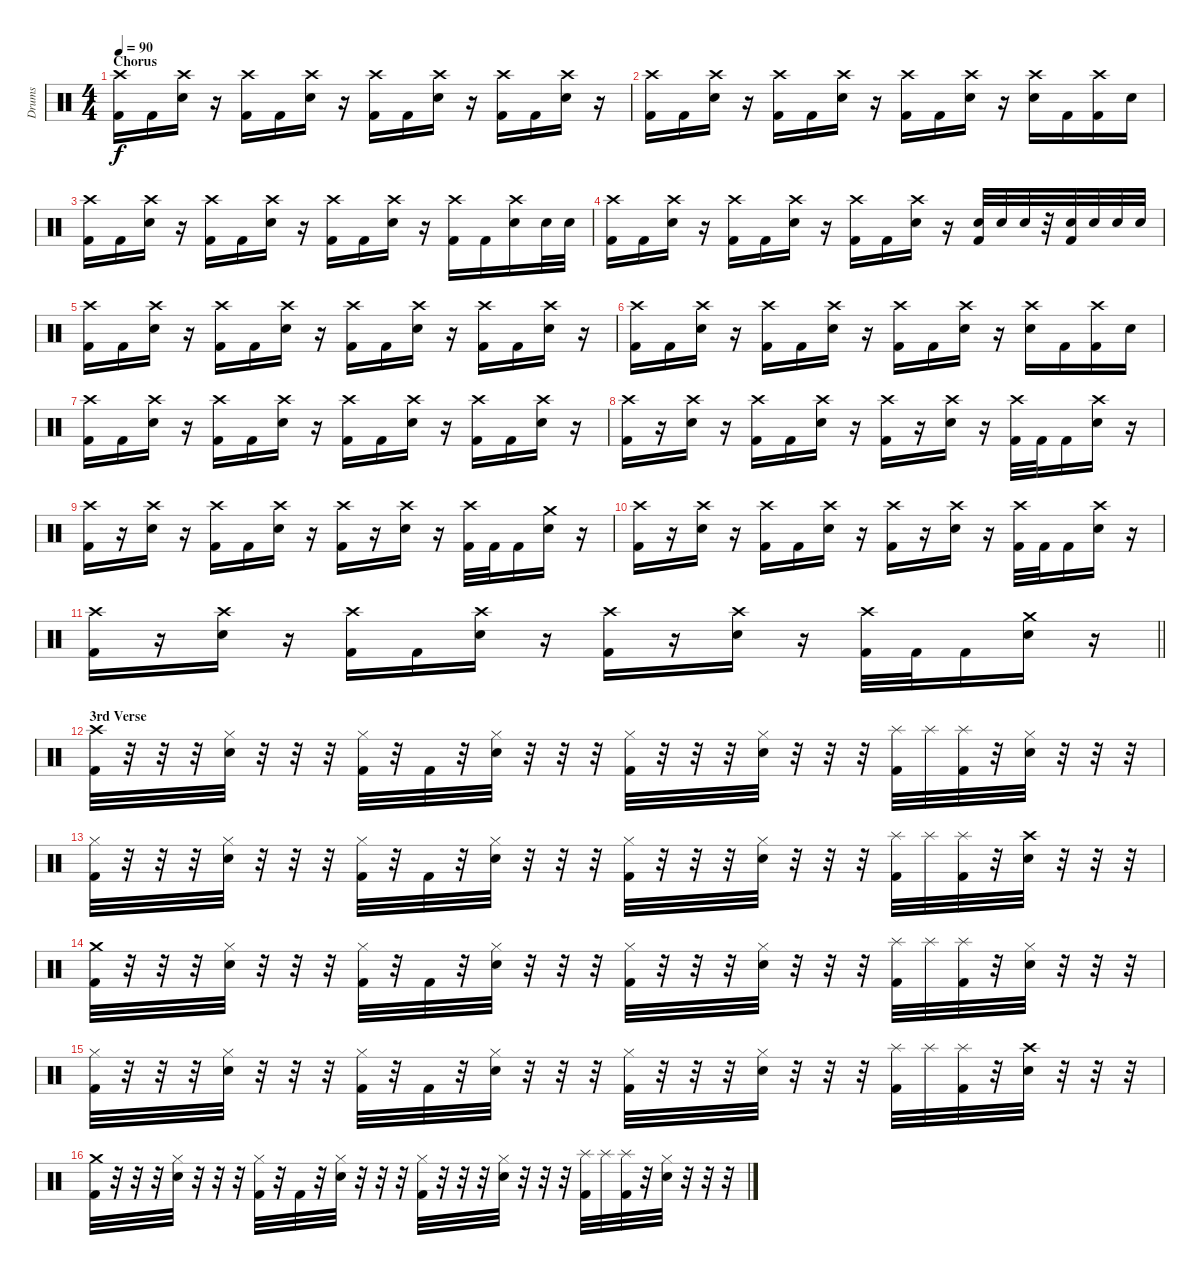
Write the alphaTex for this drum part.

\track ("Drums" "Drums") {instrument percussion}
\staff {score}
\articulation defaults
\ts (4 4)
\section ("" "Chorus")
\tempo 90
\clef neutral
\ks c
("Crash high (hit)" "Kick (hit) 2").16{dy f} "Kick (hit) 2".16 ("Crash high (hit)" "Electric Snare (hit)").16 r.16 ("Crash high (hit)" "Kick (hit) 2").16 "Kick (hit) 2".16 ("Crash high (hit)" "Electric Snare (hit)").16 r.16 ("Crash high (hit)" "Kick (hit) 2").16 "Kick (hit) 2".16 ("Crash high (hit)" "Electric Snare (hit)").16 r.16 ("Crash high (hit)" "Kick (hit) 2").16 "Kick (hit) 2".16 ("Crash high (hit)" "Electric Snare (hit)").16 r.16 |
("Crash high (hit)" "Kick (hit) 2").16 "Kick (hit) 2".16 ("Crash high (hit)" "Electric Snare (hit)").16 r.16 ("Crash high (hit)" "Kick (hit) 2").16 "Kick (hit) 2".16 ("Crash high (hit)" "Electric Snare (hit)").16 r.16 ("Crash high (hit)" "Kick (hit) 2").16 "Kick (hit) 2".16 ("Crash high (hit)" "Electric Snare (hit)").16 r.16 ("Crash high (hit)" "Electric Snare (hit)").16 "Kick (hit) 2".16 ("Crash high (hit)" "Kick (hit) 2").16 "Electric Snare (hit)".16 |
("Crash high (hit)" "Kick (hit) 2").16 "Kick (hit) 2".16 ("Crash high (hit)" "Electric Snare (hit)").16 r.16 ("Crash high (hit)" "Kick (hit) 2").16 "Kick (hit) 2".16 ("Crash high (hit)" "Electric Snare (hit)").16 r.16 ("Crash high (hit)" "Kick (hit) 2").16 "Kick (hit) 2".16 ("Crash high (hit)" "Electric Snare (hit)").16 r.16 ("Crash high (hit)" "Kick (hit) 2").16 "Kick (hit) 2".16 ("Crash high (hit)" "Electric Snare (hit)").16 "Electric Snare (hit)".32 "Electric Snare (hit)".32 |
("Crash high (hit)" "Kick (hit) 2").16 "Kick (hit) 2".16 ("Crash high (hit)" "Electric Snare (hit)").16 r.16 ("Crash high (hit)" "Kick (hit) 2").16 "Kick (hit) 2".16 ("Crash high (hit)" "Electric Snare (hit)").16 r.16 ("Crash high (hit)" "Kick (hit) 2").16 "Kick (hit) 2".16 ("Crash high (hit)" "Electric Snare (hit)").16 r.16 ("Electric Snare (hit)" "Kick (hit) 2").32 "Electric Snare (hit)".32 "Electric Snare (hit)".32 r.32 ("Electric Snare (hit)" "Kick (hit) 2").32 "Electric Snare (hit)".32 "Electric Snare (hit)".32 "Electric Snare (hit)".32 |
("Crash high (hit)" "Kick (hit) 2").16 "Kick (hit) 2".16 ("Crash high (hit)" "Electric Snare (hit)").16 r.16 ("Crash high (hit)" "Kick (hit) 2").16 "Kick (hit) 2".16 ("Crash high (hit)" "Electric Snare (hit)").16 r.16 ("Crash high (hit)" "Kick (hit) 2").16 "Kick (hit) 2".16 ("Crash high (hit)" "Electric Snare (hit)").16 r.16 ("Crash high (hit)" "Kick (hit) 2").16 "Kick (hit) 2".16 ("Crash high (hit)" "Electric Snare (hit)").16 r.16 |
("Crash high (hit)" "Kick (hit) 2").16 "Kick (hit) 2".16 ("Crash high (hit)" "Electric Snare (hit)").16 r.16 ("Crash high (hit)" "Kick (hit) 2").16 "Kick (hit) 2".16 ("Crash high (hit)" "Electric Snare (hit)").16 r.16 ("Crash high (hit)" "Kick (hit) 2").16 "Kick (hit) 2".16 ("Crash high (hit)" "Electric Snare (hit)").16 r.16 ("Crash high (hit)" "Electric Snare (hit)").16 "Kick (hit) 2".16 ("Crash high (hit)" "Kick (hit) 2").16 "Electric Snare (hit)".16 |
("Crash high (hit)" "Kick (hit) 2").16 "Kick (hit) 2".16 ("Crash high (hit)" "Electric Snare (hit)").16 r.16 ("Crash high (hit)" "Kick (hit) 2").16 "Kick (hit) 2".16 ("Crash high (hit)" "Electric Snare (hit)").16 r.16 ("Crash high (hit)" "Kick (hit) 2").16 "Kick (hit) 2".16 ("Crash high (hit)" "Electric Snare (hit)").16 r.16 ("Crash high (hit)" "Kick (hit) 2").16 "Kick (hit) 2".16 ("Crash high (hit)" "Electric Snare (hit)").16 r.16 |
("Crash high (hit)" "Kick (hit) 2").16 r.16 ("Crash high (hit)" "Electric Snare (hit)").16 r.16 ("Crash high (hit)" "Kick (hit) 2").16 "Kick (hit) 2".16 ("Crash high (hit)" "Electric Snare (hit)").16 r.16 ("Crash high (hit)" "Kick (hit) 2").16 r.16 ("Crash high (hit)" "Electric Snare (hit)").16 r.16 ("Crash high (hit)" "Kick (hit) 2").32 "Kick (hit) 2".32 "Kick (hit) 2".16 ("Crash high (hit)" "Electric Snare (hit)").16 r.16 |
("Crash high (hit)" "Kick (hit) 2").16 r.16 ("Crash high (hit)" "Electric Snare (hit)").16 r.16 ("Crash high (hit)" "Kick (hit) 2").16 "Kick (hit) 2".16 ("Crash high (hit)" "Electric Snare (hit)").16 r.16 ("Crash high (hit)" "Kick (hit) 2").16 r.16 ("Crash high (hit)" "Electric Snare (hit)").16 r.16 ("Crash high (hit)" "Kick (hit) 2").32 "Kick (hit) 2".32 "Kick (hit) 2".16 ("Crash medium (hit)" "Electric Snare (hit)").16 r.16 |
("Crash high (hit)" "Kick (hit) 2").16 r.16 ("Crash high (hit)" "Electric Snare (hit)").16 r.16 ("Crash high (hit)" "Kick (hit) 2").16 "Kick (hit) 2".16 ("Crash high (hit)" "Electric Snare (hit)").16 r.16 ("Crash high (hit)" "Kick (hit) 2").16 r.16 ("Crash high (hit)" "Electric Snare (hit)").16 r.16 ("Crash high (hit)" "Kick (hit) 2").32 "Kick (hit) 2".32 "Kick (hit) 2".16 ("Crash high (hit)" "Electric Snare (hit)").16 r.16 |
\barLineRight lightlight
("Crash high (hit)" "Kick (hit) 2").16 r.16 ("Crash high (hit)" "Electric Snare (hit)").16 r.16 ("Crash high (hit)" "Kick (hit) 2").16 "Kick (hit) 2".16 ("Crash high (hit)" "Electric Snare (hit)").16 r.16 ("Crash high (hit)" "Kick (hit) 2").16 r.16 ("Crash high (hit)" "Electric Snare (hit)").16 r.16 ("Crash high (hit)" "Kick (hit) 2").32 "Kick (hit) 2".32 "Kick (hit) 2".16 ("Crash medium (hit)" "Electric Snare (hit)").16 r.16 |
\section ("" "3rd Verse")
("Crash high (hit)" "Kick (hit) 2").32 r.32 r.32 r.32 ("Hi-Hat (closed)" "Electric Snare (hit)").32 r.32 r.32 r.32 ("Hi-Hat (closed)" "Kick (hit) 2").32 r.32 "Kick (hit) 2".32 r.32 ("Hi-Hat (closed)" "Electric Snare (hit)").32 r.32 r.32 r.32 ("Hi-Hat (closed)" "Kick (hit) 2").32 r.32 r.32 r.32 ("Hi-Hat (closed)" "Electric Snare (hit)").32 r.32 r.32 r.32 ("Splash (hit)" "Kick (hit) 2").32 "Splash (hit)".32 ("Splash (hit)" "Kick (hit) 2").32 r.32 ("Hi-Hat (closed)" "Electric Snare (hit)").32 r.32 r.32 r.32 |
("Hi-Hat (closed)" "Kick (hit) 2").32 r.32 r.32 r.32 ("Hi-Hat (closed)" "Electric Snare (hit)").32 r.32 r.32 r.32 ("Hi-Hat (closed)" "Kick (hit) 2").32 r.32 "Kick (hit) 2".32 r.32 ("Hi-Hat (closed)" "Electric Snare (hit)").32 r.32 r.32 r.32 ("Hi-Hat (closed)" "Kick (hit) 2").32 r.32 r.32 r.32 ("Hi-Hat (closed)" "Electric Snare (hit)").32 r.32 r.32 r.32 ("Splash (hit)" "Kick (hit) 2").32 "Splash (hit)".32 ("Splash (hit)" "Kick (hit) 2").32 r.32 ("Crash high (hit)" "Electric Snare (hit)").32 r.32 r.32 r.32 |
("Crash medium (hit)" "Kick (hit) 2").32 r.32 r.32 r.32 ("Hi-Hat (closed)" "Electric Snare (hit)").32 r.32 r.32 r.32 ("Hi-Hat (closed)" "Kick (hit) 2").32 r.32 "Kick (hit) 2".32 r.32 ("Hi-Hat (closed)" "Electric Snare (hit)").32 r.32 r.32 r.32 ("Hi-Hat (closed)" "Kick (hit) 2").32 r.32 r.32 r.32 ("Hi-Hat (closed)" "Electric Snare (hit)").32 r.32 r.32 r.32 ("Splash (hit)" "Kick (hit) 2").32 "Splash (hit)".32 ("Splash (hit)" "Kick (hit) 2").32 r.32 ("Hi-Hat (closed)" "Electric Snare (hit)").32 r.32 r.32 r.32 |
("Hi-Hat (closed)" "Kick (hit) 2").32 r.32 r.32 r.32 ("Hi-Hat (closed)" "Electric Snare (hit)").32 r.32 r.32 r.32 ("Hi-Hat (closed)" "Kick (hit) 2").32 r.32 "Kick (hit) 2".32 r.32 ("Hi-Hat (closed)" "Electric Snare (hit)").32 r.32 r.32 r.32 ("Hi-Hat (closed)" "Kick (hit) 2").32 r.32 r.32 r.32 ("Hi-Hat (closed)" "Electric Snare (hit)").32 r.32 r.32 r.32 ("Splash (hit)" "Kick (hit) 2").32 "Splash (hit)".32 ("Splash (hit)" "Kick (hit) 2").32 r.32 ("Crash high (hit)" "Electric Snare (hit)").32 r.32 r.32 r.32 |
("Crash medium (hit)" "Kick (hit) 2").32 r.32 r.32 r.32 ("Hi-Hat (closed)" "Electric Snare (hit)").32 r.32 r.32 r.32 ("Hi-Hat (closed)" "Kick (hit) 2").32 r.32 "Kick (hit) 2".32 r.32 ("Hi-Hat (closed)" "Electric Snare (hit)").32 r.32 r.32 r.32 ("Hi-Hat (closed)" "Kick (hit) 2").32 r.32 r.32 r.32 ("Hi-Hat (closed)" "Electric Snare (hit)").32 r.32 r.32 r.32 ("Splash (hit)" "Kick (hit) 2").32 "Splash (hit)".32 ("Splash (hit)" "Kick (hit) 2").32 r.32 ("Hi-Hat (closed)" "Electric Snare (hit)").32 r.32 r.32 r.32
